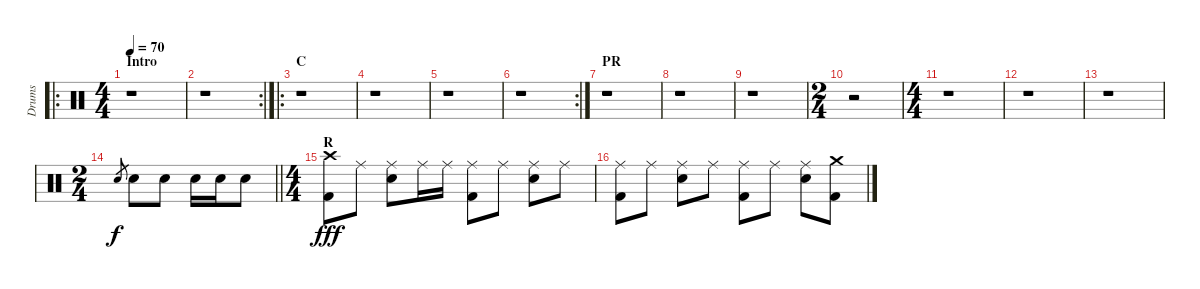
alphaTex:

\track ("Drums" "Drums") {instrument percussion}
\staff {score}
\articulation defaults
\ro
\ts (4 4)
\section ("" "Intro")
\tempo 70
\clef neutral
\ks c
r.1{dy f} |
\rc 2
r.1 |
\ro
\section ("" "C")
r.1 |
r.1 |
r.1 |
\rc 2
r.1 |
\section ("" "PR")
r.1 |
r.1 |
r.1 |
\ts (2 4)
r.2 |
\ts (4 4)
r.1 |
r.1 |
r.1 |
\ts (2 4)
\barLineRight lightlight "Electric Snare (hit)".8{gr} "Electric Snare (hit)".8 "Electric Snare (hit)".8 "Electric Snare (hit)".16 "Electric Snare (hit)".16 "Electric Snare (hit)".8
|
\ts (4 4)
\section ("" "R")
("Kick (hit) 2" "Crash high (hit)").8{dy fff} "Ride (middle)".8 ("Electric Snare (hit)" "Ride (middle)").8 "Ride (middle)".16 "Ride (middle)".16 ("Kick (hit) 2" "Ride (middle)").8 "Ride (middle)".8 ("Electric Snare (hit)" "Ride (middle)").8 "Ride (middle)".8 |
("Kick (hit) 2" "Ride (middle)").8 "Ride (middle)".8 ("Electric Snare (hit)" "Ride (middle)").8 "Ride (middle)".8 ("Kick (hit) 2" "Ride (middle)").8 "Ride (middle)".8 ("Electric Snare (hit)" "Ride (middle)").8 ("Kick (hit) 2" "Crash medium (hit)").8
